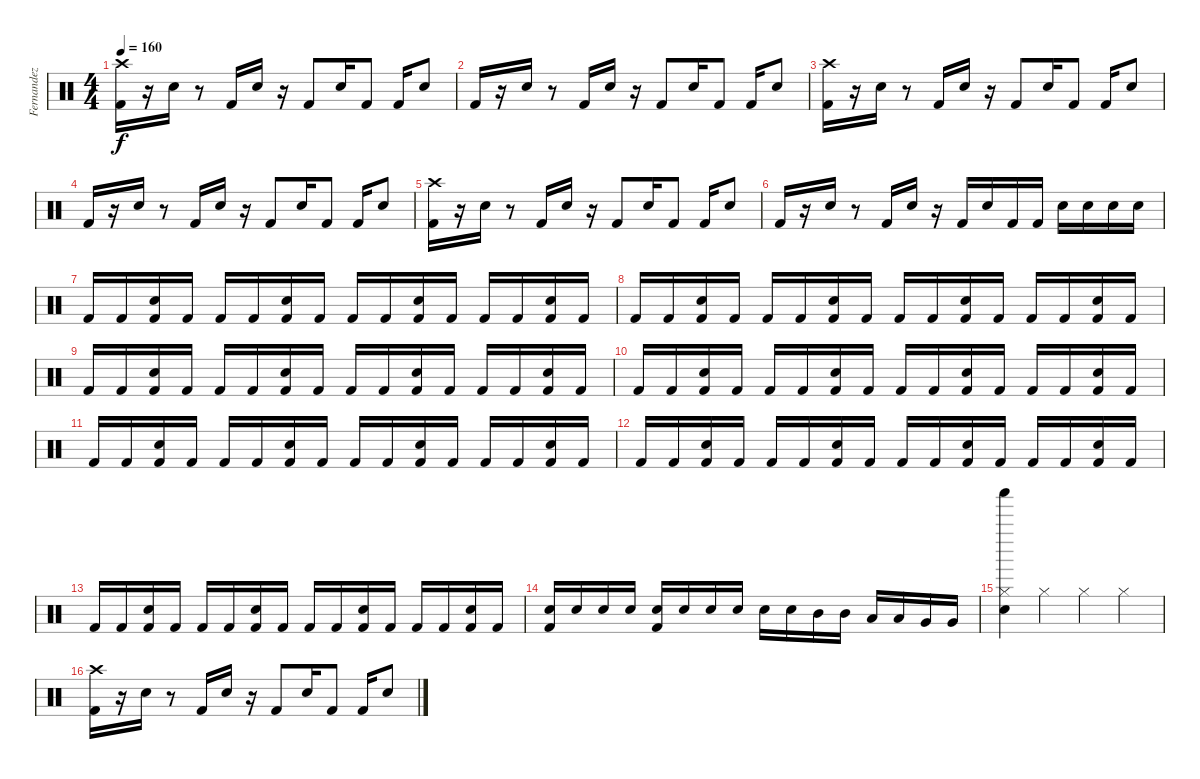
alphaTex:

\track ("Fernandez" "Fernandez") {instrument percussion}
\staff {score}
\articulation defaults
\ts (4 4)
\tempo 160
\clef neutral
\ks c
("Kick (hit) 2" "Crash high (hit)").16{dy f} r.16 "Snare (hit) 2".16 r.8 "Kick (hit) 2".16 "Snare (hit) 2".16 r.16 "Kick (hit) 2".8 "Snare (hit) 2".16 "Kick (hit) 2".8 "Kick (hit) 2".16 "Snare (hit) 2".8 |
"Kick (hit) 2".16 r.16 "Snare (hit) 2".16 r.8 "Kick (hit) 2".16 "Snare (hit) 2".16 r.16 "Kick (hit) 2".8 "Snare (hit) 2".16 "Kick (hit) 2".8 "Kick (hit) 2".16 "Snare (hit) 2".8 |
("Kick (hit) 2" "Crash high (hit)").16 r.16 "Snare (hit) 2".16 r.8 "Kick (hit) 2".16 "Snare (hit) 2".16 r.16 "Kick (hit) 2".8 "Snare (hit) 2".16 "Kick (hit) 2".8 "Kick (hit) 2".16 "Snare (hit) 2".8 |
"Kick (hit) 2".16 r.16 "Snare (hit) 2".16 r.8 "Kick (hit) 2".16 "Snare (hit) 2".16 r.16 "Kick (hit) 2".8 "Snare (hit) 2".16 "Kick (hit) 2".8 "Kick (hit) 2".16 "Snare (hit) 2".8 |
("Kick (hit) 2" "Crash high (hit)").16 r.16 "Snare (hit) 2".16 r.8 "Kick (hit) 2".16 "Snare (hit) 2".16 r.16 "Kick (hit) 2".8 "Snare (hit) 2".16 "Kick (hit) 2".8 "Kick (hit) 2".16 "Snare (hit) 2".8 |
"Kick (hit) 2".16 r.16 "Snare (hit) 2".16 r.8 "Kick (hit) 2".16 "Snare (hit) 2".16 r.16 "Kick (hit) 2".16 "Snare (hit) 2".16 "Kick (hit) 2".16 "Kick (hit) 2".16 "Snare (hit) 2".16 "Snare (hit) 2".16 "Snare (hit) 2".16 "Snare (hit) 2".16 |
"Kick (hit) 2".16 "Kick (hit) 2".16 ("Snare (hit) 2" "Kick (hit) 2").16 "Kick (hit) 2".16 "Kick (hit) 2".16 "Kick (hit) 2".16 ("Snare (hit) 2" "Kick (hit) 2").16 "Kick (hit) 2".16 "Kick (hit) 2".16 "Kick (hit) 2".16 ("Snare (hit) 2" "Kick (hit) 2").16 "Kick (hit) 2".16 "Kick (hit) 2".16 "Kick (hit) 2".16 ("Snare (hit) 2" "Kick (hit) 2").16 "Kick (hit) 2".16 |
"Kick (hit) 2".16 "Kick (hit) 2".16 ("Snare (hit) 2" "Kick (hit) 2").16 "Kick (hit) 2".16 "Kick (hit) 2".16 "Kick (hit) 2".16 ("Snare (hit) 2" "Kick (hit) 2").16 "Kick (hit) 2".16 "Kick (hit) 2".16 "Kick (hit) 2".16 ("Snare (hit) 2" "Kick (hit) 2").16 "Kick (hit) 2".16 "Kick (hit) 2".16 "Kick (hit) 2".16 ("Snare (hit) 2" "Kick (hit) 2").16 "Kick (hit) 2".16 |
"Kick (hit) 2".16 "Kick (hit) 2".16 ("Snare (hit) 2" "Kick (hit) 2").16 "Kick (hit) 2".16 "Kick (hit) 2".16 "Kick (hit) 2".16 ("Snare (hit) 2" "Kick (hit) 2").16 "Kick (hit) 2".16 "Kick (hit) 2".16 "Kick (hit) 2".16 ("Snare (hit) 2" "Kick (hit) 2").16 "Kick (hit) 2".16 "Kick (hit) 2".16 "Kick (hit) 2".16 ("Snare (hit) 2" "Kick (hit) 2").16 "Kick (hit) 2".16 |
"Kick (hit) 2".16 "Kick (hit) 2".16 ("Snare (hit) 2" "Kick (hit) 2").16 "Kick (hit) 2".16 "Kick (hit) 2".16 "Kick (hit) 2".16 ("Snare (hit) 2" "Kick (hit) 2").16 "Kick (hit) 2".16 "Kick (hit) 2".16 "Kick (hit) 2".16 ("Snare (hit) 2" "Kick (hit) 2").16 "Kick (hit) 2".16 "Kick (hit) 2".16 "Kick (hit) 2".16 ("Snare (hit) 2" "Kick (hit) 2").16 "Kick (hit) 2".16 |
"Kick (hit) 2".16 "Kick (hit) 2".16 ("Snare (hit) 2" "Kick (hit) 2").16 "Kick (hit) 2".16 "Kick (hit) 2".16 "Kick (hit) 2".16 ("Snare (hit) 2" "Kick (hit) 2").16 "Kick (hit) 2".16 "Kick (hit) 2".16 "Kick (hit) 2".16 ("Snare (hit) 2" "Kick (hit) 2").16 "Kick (hit) 2".16 "Kick (hit) 2".16 "Kick (hit) 2".16 ("Snare (hit) 2" "Kick (hit) 2").16 "Kick (hit) 2".16 |
"Kick (hit) 2".16 "Kick (hit) 2".16 ("Snare (hit) 2" "Kick (hit) 2").16 "Kick (hit) 2".16 "Kick (hit) 2".16 "Kick (hit) 2".16 ("Snare (hit) 2" "Kick (hit) 2").16 "Kick (hit) 2".16 "Kick (hit) 2".16 "Kick (hit) 2".16 ("Snare (hit) 2" "Kick (hit) 2").16 "Kick (hit) 2".16 "Kick (hit) 2".16 "Kick (hit) 2".16 ("Snare (hit) 2" "Kick (hit) 2").16 "Kick (hit) 2".16 |
"Kick (hit) 2".16 "Kick (hit) 2".16 ("Snare (hit) 2" "Kick (hit) 2").16 "Kick (hit) 2".16 "Kick (hit) 2".16 "Kick (hit) 2".16 ("Snare (hit) 2" "Kick (hit) 2").16 "Kick (hit) 2".16 "Kick (hit) 2".16 "Kick (hit) 2".16 ("Snare (hit) 2" "Kick (hit) 2").16 "Kick (hit) 2".16 "Kick (hit) 2".16 "Kick (hit) 2".16 ("Snare (hit) 2" "Kick (hit) 2").16 "Kick (hit) 2".16 |
("Kick (hit) 2" "Snare (hit) 2").16 "Snare (hit) 2".16 "Snare (hit) 2".16 "Snare (hit) 2".16 ("Kick (hit) 2" "Snare (hit) 2").16 "Snare (hit) 2".16 "Snare (hit) 2".16 "Snare (hit) 2".16 "Snare (hit) 2".16 "Snare (hit) 2".16 "Mid Tom (hit)".16 "Mid Tom (hit)".16 "Low Tom (hit)".16 "Low Tom (hit)".16 "Very Low Tom (hit)".16 "Very Low Tom (hit)".16 |
("Hi-Hat (closed)" "Shaker (hit)" "Snare (hit) 2").4 "Hi-Hat (closed)".4 "Hi-Hat (closed)".4 "Hi-Hat (closed)".4 |
("Kick (hit) 2" "Crash high (hit)").16 r.16 "Snare (hit) 2".16 r.8 "Kick (hit) 2".16 "Snare (hit) 2".16 r.16 "Kick (hit) 2".8 "Snare (hit) 2".16 "Kick (hit) 2".8 "Kick (hit) 2".16 "Snare (hit) 2".8
